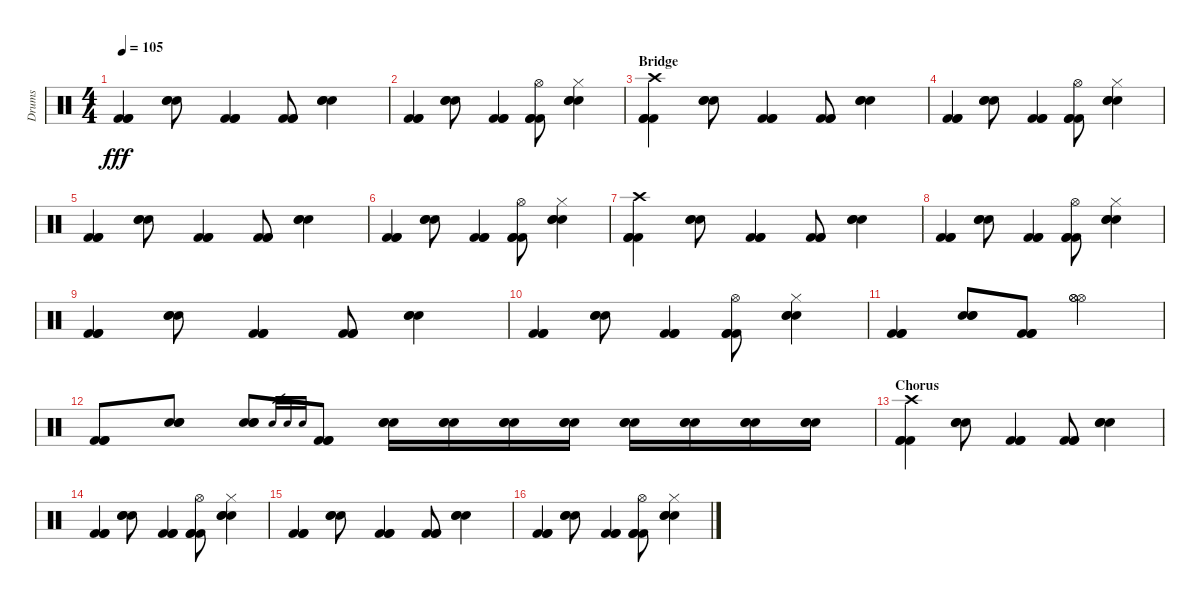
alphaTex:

\track ("Drums" "Drums") {instrument percussion}
\staff {score}
\articulation defaults
\ts (4 4)
\tempo 105
\clef neutral
\ks c
("Kick (hit) 2" "Kick (hit) 2" "Kick (hit) 2").4{dy fff} ("Electric Snare (hit)" "Electric Snare (hit)" "Electric Snare (hit)").8 ("Kick (hit) 2" "Kick (hit) 2" "Kick (hit) 2").4 ("Kick (hit) 2" "Kick (hit) 2" "Kick (hit) 2").8 ("Electric Snare (hit)" "Electric Snare (hit)" "Electric Snare (hit)").4 |
("Kick (hit) 2" "Kick (hit) 2" "Kick (hit) 2").4 ("Electric Snare (hit)" "Electric Snare (hit)" "Electric Snare (hit)").8 ("Kick (hit) 2" "Kick (hit) 2" "Kick (hit) 2").4 ("Kick (hit) 2" "Kick (hit) 2" "Kick (hit) 2" "Hi-Hat (open)").8 ("Electric Snare (hit)" "Electric Snare (hit)" "Electric Snare (hit)" "Hi-Hat (closed)").4 |
\section ("" "Bridge")
("Kick (hit) 2" "Kick (hit) 2" "Kick (hit) 2" "Crash high (hit)").4 ("Electric Snare (hit)" "Electric Snare (hit)" "Electric Snare (hit)").8 ("Kick (hit) 2" "Kick (hit) 2" "Kick (hit) 2").4 ("Kick (hit) 2" "Kick (hit) 2" "Kick (hit) 2").8 ("Electric Snare (hit)" "Electric Snare (hit)" "Electric Snare (hit)").4 |
("Kick (hit) 2" "Kick (hit) 2" "Kick (hit) 2").4 ("Electric Snare (hit)" "Electric Snare (hit)" "Electric Snare (hit)").8 ("Kick (hit) 2" "Kick (hit) 2" "Kick (hit) 2").4 ("Kick (hit) 2" "Kick (hit) 2" "Kick (hit) 2" "Hi-Hat (open)").8 ("Electric Snare (hit)" "Electric Snare (hit)" "Electric Snare (hit)" "Hi-Hat (closed)").4 |
("Kick (hit) 2" "Kick (hit) 2" "Kick (hit) 2").4 ("Electric Snare (hit)" "Electric Snare (hit)" "Electric Snare (hit)").8 ("Kick (hit) 2" "Kick (hit) 2" "Kick (hit) 2").4 ("Kick (hit) 2" "Kick (hit) 2" "Kick (hit) 2").8 ("Electric Snare (hit)" "Electric Snare (hit)" "Electric Snare (hit)").4 |
("Kick (hit) 2" "Kick (hit) 2" "Kick (hit) 2").4 ("Electric Snare (hit)" "Electric Snare (hit)" "Electric Snare (hit)").8 ("Kick (hit) 2" "Kick (hit) 2" "Kick (hit) 2").4 ("Kick (hit) 2" "Kick (hit) 2" "Kick (hit) 2" "Hi-Hat (open)").8 ("Electric Snare (hit)" "Electric Snare (hit)" "Electric Snare (hit)" "Hi-Hat (closed)").4 |
("Kick (hit) 2" "Kick (hit) 2" "Kick (hit) 2" "Crash high (hit)").4 ("Electric Snare (hit)" "Electric Snare (hit)" "Electric Snare (hit)").8 ("Kick (hit) 2" "Kick (hit) 2" "Kick (hit) 2").4 ("Kick (hit) 2" "Kick (hit) 2" "Kick (hit) 2").8 ("Electric Snare (hit)" "Electric Snare (hit)" "Electric Snare (hit)").4 |
("Kick (hit) 2" "Kick (hit) 2" "Kick (hit) 2").4 ("Electric Snare (hit)" "Electric Snare (hit)" "Electric Snare (hit)").8 ("Kick (hit) 2" "Kick (hit) 2" "Kick (hit) 2").4 ("Kick (hit) 2" "Kick (hit) 2" "Kick (hit) 2" "Hi-Hat (open)").8 ("Electric Snare (hit)" "Electric Snare (hit)" "Electric Snare (hit)" "Hi-Hat (closed)").4 |
("Kick (hit) 2" "Kick (hit) 2" "Kick (hit) 2").4 ("Electric Snare (hit)" "Electric Snare (hit)" "Electric Snare (hit)").8 ("Kick (hit) 2" "Kick (hit) 2" "Kick (hit) 2").4 ("Kick (hit) 2" "Kick (hit) 2" "Kick (hit) 2").8 ("Electric Snare (hit)" "Electric Snare (hit)" "Electric Snare (hit)").4 |
("Kick (hit) 2" "Kick (hit) 2" "Kick (hit) 2").4 ("Electric Snare (hit)" "Electric Snare (hit)" "Electric Snare (hit)").8 ("Kick (hit) 2" "Kick (hit) 2" "Kick (hit) 2").4 ("Kick (hit) 2" "Kick (hit) 2" "Kick (hit) 2" "Hi-Hat (open)").8 ("Electric Snare (hit)" "Electric Snare (hit)" "Electric Snare (hit)" "Hi-Hat (closed)").4 |
("Kick (hit) 2" "Kick (hit) 2" "Kick (hit) 2").4 ("Electric Snare (hit)" "Electric Snare (hit)" "Electric Snare (hit)").8 ("Kick (hit) 2" "Kick (hit) 2" "Kick (hit) 2").8 ("Hi-Hat (open)" "Hi-Hat (open)" "Hi-Hat (open)").2 |
("Kick (hit) 2" "Kick (hit) 2" "Kick (hit) 2").8 ("Electric Snare (hit)" "Electric Snare (hit)" "Electric Snare (hit)").8 ("Electric Snare (hit)" "Electric Snare (hit)" "Electric Snare (hit)").8 "Electric Snare (hit)".32{gr} "Electric Snare (hit)".32{gr} "Electric Snare (hit)".32{gr} ("Kick (hit) 2" "Kick (hit) 2" "Kick (hit) 2").8 ("Electric Snare (hit)" "Electric Snare (hit)" "Electric Snare (hit)").16 ("Electric Snare (hit)" "Electric Snare (hit)" "Electric Snare (hit)").16 ("Electric Snare (hit)" "Electric Snare (hit)" "Electric Snare (hit)").16 ("Electric Snare (hit)" "Electric Snare (hit)" "Electric Snare (hit)").16 ("Electric Snare (hit)" "Electric Snare (hit)" "Electric Snare (hit)").16 ("Electric Snare (hit)" "Electric Snare (hit)" "Electric Snare (hit)").16 ("Electric Snare (hit)" "Electric Snare (hit)" "Electric Snare (hit)").16 ("Electric Snare (hit)" "Electric Snare (hit)" "Electric Snare (hit)").16 |
\section ("" "Chorus")
("Kick (hit) 2" "Kick (hit) 2" "Kick (hit) 2" "Crash high (hit)").4 ("Electric Snare (hit)" "Electric Snare (hit)" "Electric Snare (hit)").8 ("Kick (hit) 2" "Kick (hit) 2" "Kick (hit) 2").4 ("Kick (hit) 2" "Kick (hit) 2" "Kick (hit) 2").8 ("Electric Snare (hit)" "Electric Snare (hit)" "Electric Snare (hit)").4 |
("Kick (hit) 2" "Kick (hit) 2" "Kick (hit) 2").4 ("Electric Snare (hit)" "Electric Snare (hit)" "Electric Snare (hit)").8 ("Kick (hit) 2" "Kick (hit) 2" "Kick (hit) 2").4 ("Kick (hit) 2" "Kick (hit) 2" "Kick (hit) 2" "Hi-Hat (open)").8 ("Electric Snare (hit)" "Electric Snare (hit)" "Electric Snare (hit)" "Hi-Hat (closed)").4 |
("Kick (hit) 2" "Kick (hit) 2" "Kick (hit) 2").4 ("Electric Snare (hit)" "Electric Snare (hit)" "Electric Snare (hit)").8 ("Kick (hit) 2" "Kick (hit) 2" "Kick (hit) 2").4 ("Kick (hit) 2" "Kick (hit) 2" "Kick (hit) 2").8 ("Electric Snare (hit)" "Electric Snare (hit)" "Electric Snare (hit)").4 |
("Kick (hit) 2" "Kick (hit) 2" "Kick (hit) 2").4 ("Electric Snare (hit)" "Electric Snare (hit)" "Electric Snare (hit)").8 ("Kick (hit) 2" "Kick (hit) 2" "Kick (hit) 2").4 ("Kick (hit) 2" "Kick (hit) 2" "Kick (hit) 2" "Hi-Hat (open)").8 ("Electric Snare (hit)" "Electric Snare (hit)" "Electric Snare (hit)" "Hi-Hat (closed)").4
